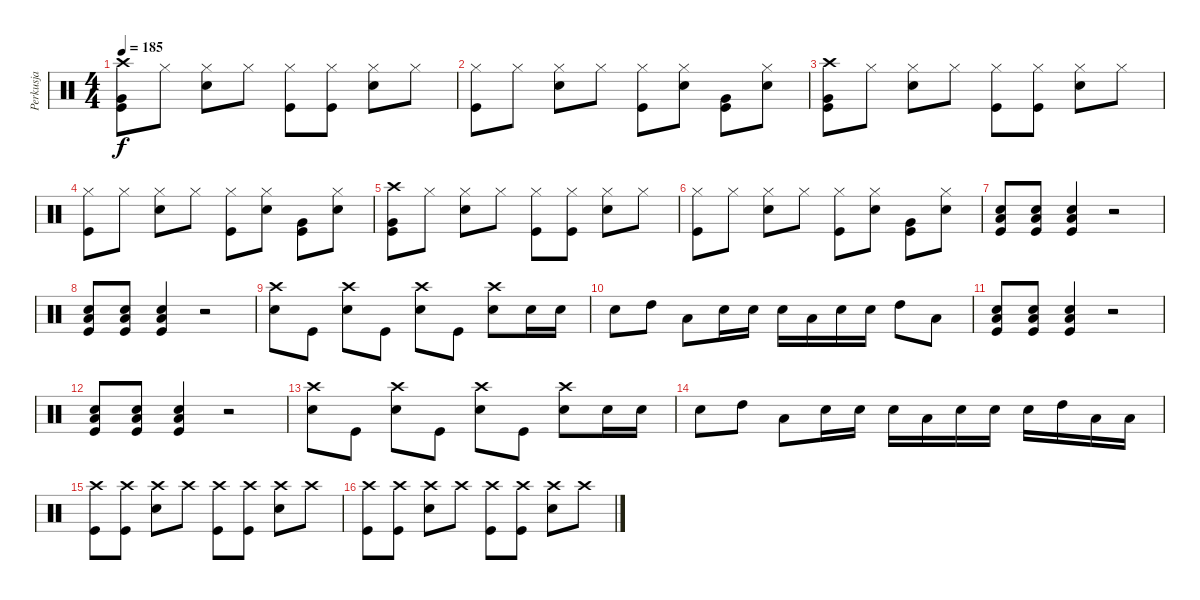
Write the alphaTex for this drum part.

\track ("Perkusja" "Perkusja") {instrument percussion}
\staff {score}
\articulation defaults
\ts (4 4)
\tempo 185
\clef neutral
\ks c
("Crash high (hit)" "Very Low Tom (hit)" "Kick (hit)").8{dy f} "Hi-Hat (closed)".8 ("Hi-Hat (closed)" "Snare (hit) 2").8 "Hi-Hat (closed)".8 ("Hi-Hat (closed)" "Kick (hit)").8 ("Hi-Hat (closed)" "Kick (hit)").8 ("Hi-Hat (closed)" "Snare (hit) 2").8 "Hi-Hat (closed)".8 |
("Hi-Hat (closed)" "Kick (hit)").8 "Hi-Hat (closed)".8 ("Hi-Hat (closed)" "Snare (hit) 2").8 "Hi-Hat (closed)".8 ("Hi-Hat (closed)" "Kick (hit)").8 ("Hi-Hat (closed)" "Snare (hit) 2").8 ("Very Low Tom (hit)" "Kick (hit)").8 ("Hi-Hat (closed)" "Snare (hit) 2").8 |
("Crash high (hit)" "Very Low Tom (hit)" "Kick (hit)").8 "Hi-Hat (closed)".8 ("Hi-Hat (closed)" "Snare (hit) 2").8 "Hi-Hat (closed)".8 ("Hi-Hat (closed)" "Kick (hit)").8 ("Hi-Hat (closed)" "Kick (hit)").8 ("Hi-Hat (closed)" "Snare (hit) 2").8 "Hi-Hat (closed)".8 |
("Hi-Hat (closed)" "Kick (hit)").8 "Hi-Hat (closed)".8 ("Hi-Hat (closed)" "Snare (hit) 2").8 "Hi-Hat (closed)".8 ("Hi-Hat (closed)" "Kick (hit)").8 ("Hi-Hat (closed)" "Snare (hit) 2").8 ("Very Low Tom (hit)" "Kick (hit)").8 ("Hi-Hat (closed)" "Snare (hit) 2").8 |
("Crash high (hit)" "Very Low Tom (hit)" "Kick (hit)").8 "Hi-Hat (closed)".8 ("Hi-Hat (closed)" "Snare (hit) 2").8 "Hi-Hat (closed)".8 ("Hi-Hat (closed)" "Kick (hit)").8 ("Hi-Hat (closed)" "Kick (hit)").8 ("Hi-Hat (closed)" "Snare (hit) 2").8 "Hi-Hat (closed)".8 |
("Hi-Hat (closed)" "Kick (hit)").8 "Hi-Hat (closed)".8 ("Hi-Hat (closed)" "Snare (hit) 2").8 "Hi-Hat (closed)".8 ("Hi-Hat (closed)" "Kick (hit)").8 ("Hi-Hat (closed)" "Snare (hit) 2").8 ("Very Low Tom (hit)" "Kick (hit)").8 ("Hi-Hat (closed)" "Snare (hit) 2").8 |
("Snare (hit) 2" "Low Floor Tom (hit)" "Kick (hit)").8 ("Snare (hit) 2" "Low Floor Tom (hit)" "Kick (hit)").8 ("Snare (hit) 2" "Low Floor Tom (hit)" "Kick (hit)").4 r.2 |
("Snare (hit) 2" "Low Floor Tom (hit)" "Kick (hit)").8 ("Snare (hit) 2" "Low Floor Tom (hit)" "Kick (hit)").8 ("Snare (hit) 2" "Low Floor Tom (hit)" "Kick (hit)").4 r.2 |
("Crash high (hit)" "Snare (hit) 2").8 "Kick (hit)".8 ("Crash high (hit)" "Snare (hit) 2").8 "Kick (hit)".8 ("Crash high (hit)" "Snare (hit) 2").8 "Kick (hit)".8 ("Crash high (hit)" "Snare (hit) 2").8 "Snare (hit) 2".16 "Snare (hit) 2".16 |
"Snare (hit) 2".8 "High Tom (hit)".8 "Low Floor Tom (hit)".8 "Snare (hit) 2".16 "Snare (hit) 2".16 "Snare (hit) 2".16 "Low Floor Tom (hit)".16 "Snare (hit) 2".16 "Snare (hit) 2".16 "High Tom (hit)".8 "Low Floor Tom (hit)".8 |
("Snare (hit) 2" "Low Floor Tom (hit)" "Kick (hit)").8 ("Snare (hit) 2" "Low Floor Tom (hit)" "Kick (hit)").8 ("Snare (hit) 2" "Low Floor Tom (hit)" "Kick (hit)").4 r.2 |
("Snare (hit) 2" "Low Floor Tom (hit)" "Kick (hit)").8 ("Snare (hit) 2" "Low Floor Tom (hit)" "Kick (hit)").8 ("Snare (hit) 2" "Low Floor Tom (hit)" "Kick (hit)").4 r.2 |
("Crash high (hit)" "Snare (hit) 2").8 "Kick (hit)".8 ("Crash high (hit)" "Snare (hit) 2").8 "Kick (hit)".8 ("Crash high (hit)" "Snare (hit) 2").8 "Kick (hit)".8 ("Crash high (hit)" "Snare (hit) 2").8 "Snare (hit) 2".16 "Snare (hit) 2".16 |
"Snare (hit) 2".8 "High Tom (hit)".8 "Low Floor Tom (hit)".8 "Snare (hit) 2".16 "Snare (hit) 2".16 "Snare (hit) 2".16 "Low Floor Tom (hit)".16 "Snare (hit) 2".16 "Snare (hit) 2".16 "Snare (hit) 2".16 "High Tom (hit)".16 "Low Floor Tom (hit)".16 "Low Floor Tom (hit)".16 |
("Crash high (hit)" "Kick (hit)").8 ("Crash high (hit)" "Kick (hit)").8 ("Crash high (hit)" "Snare (hit) 2").8 "Crash high (hit)".8 ("Crash high (hit)" "Kick (hit)").8 ("Crash high (hit)" "Kick (hit)").8 ("Crash high (hit)" "Snare (hit) 2").8 "Crash high (hit)".8 |
("Crash high (hit)" "Kick (hit)").8 ("Crash high (hit)" "Kick (hit)").8 ("Crash high (hit)" "Snare (hit) 2").8 "Crash high (hit)".8 ("Crash high (hit)" "Kick (hit)").8 ("Crash high (hit)" "Kick (hit)").8 ("Crash high (hit)" "Snare (hit) 2").8 "Crash high (hit)".8
